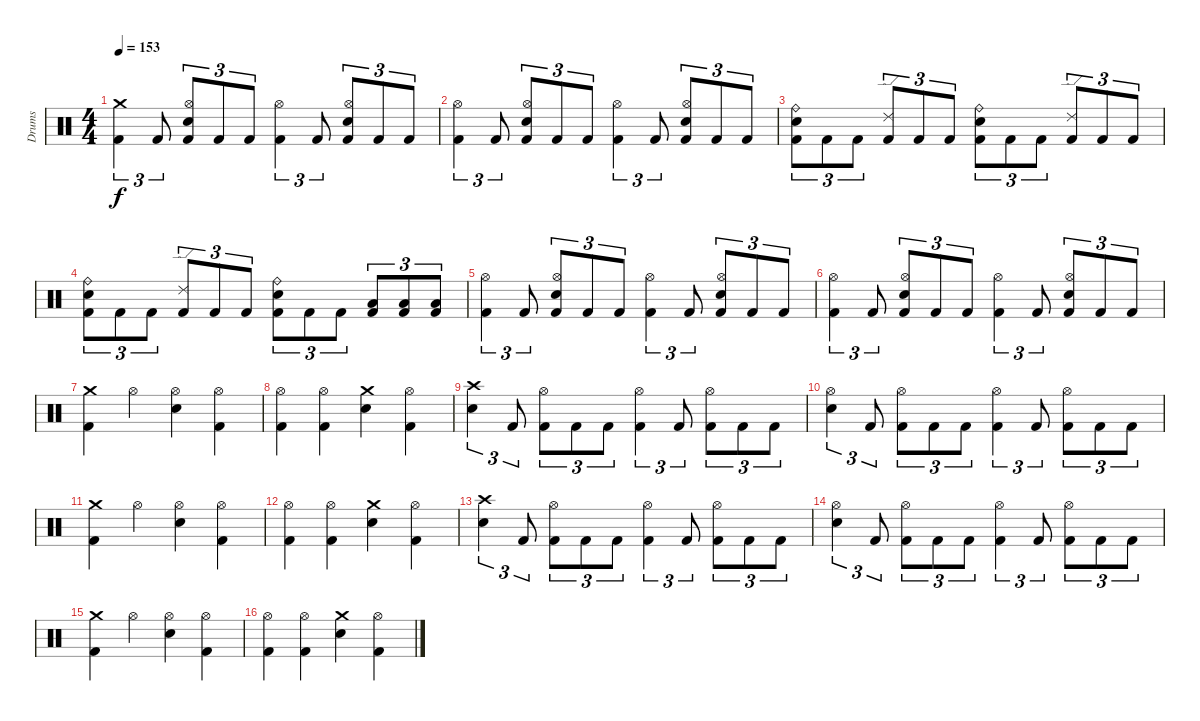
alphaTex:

\track ("Drums" "Drums") {instrument percussion}
\staff {score}
\articulation defaults
\ts (4 4)
\tempo 153
\clef neutral
\ks c
("Crash medium (hit)" "Kick (hit) 2").4{tu (3 2) dy f} "Kick (hit) 2".8{tu (3 2)} ("Hi-Hat (open)" "Electric Snare (hit)" "Kick (hit) 2").8{tu (3 2)} "Kick (hit) 2".8{tu (3 2)} "Kick (hit) 2".8{tu (3 2)} ("Hi-Hat (open)" "Kick (hit) 2").4{tu (3 2)} "Kick (hit) 2".8{tu (3 2)} ("Hi-Hat (open)" "Electric Snare (hit)" "Kick (hit) 2").8{tu (3 2)} "Kick (hit) 2".8{tu (3 2)} "Kick (hit) 2".8{tu (3 2)} |
("Hi-Hat (open)" "Kick (hit) 2").4{tu (3 2)} "Kick (hit) 2".8{tu (3 2)} ("Hi-Hat (open)" "Electric Snare (hit)" "Kick (hit) 2").8{tu (3 2)} "Kick (hit) 2".8{tu (3 2)} "Kick (hit) 2".8{tu (3 2)} ("Hi-Hat (open)" "Kick (hit) 2").4{tu (3 2)} "Kick (hit) 2".8{tu (3 2)} ("Hi-Hat (open)" "Electric Snare (hit)" "Kick (hit) 2").8{tu (3 2)} "Kick (hit) 2".8{tu (3 2)} "Kick (hit) 2".8{tu (3 2)} |
("Ride (bell)" "Electric Snare (hit)" "Kick (hit) 2").8{tu (3 2)} "Kick (hit) 2".8{tu (3 2)} "Kick (hit) 2".8{tu (3 2)} ("Ride (edge) 2" "Kick (hit) 2").8{tu (3 2)} "Kick (hit) 2".8{tu (3 2)} "Kick (hit) 2".8{tu (3 2)} ("Ride (bell)" "Electric Snare (hit)" "Kick (hit) 2").8{tu (3 2)} "Kick (hit) 2".8{tu (3 2)} "Kick (hit) 2".8{tu (3 2)} ("Ride (edge) 2" "Kick (hit) 2").8{tu (3 2)} "Kick (hit) 2".8{tu (3 2)} "Kick (hit) 2".8{tu (3 2)} |
("Ride (bell)" "Electric Snare (hit)" "Kick (hit) 2").8{tu (3 2)} "Kick (hit) 2".8{tu (3 2)} "Kick (hit) 2".8{tu (3 2)} ("Ride (edge) 2" "Kick (hit) 2").8{tu (3 2)} "Kick (hit) 2".8{tu (3 2)} "Kick (hit) 2".8{tu (3 2)} ("Ride (bell)" "Electric Snare (hit)" "Kick (hit) 2").8{tu (3 2)} "Kick (hit) 2".8{tu (3 2)} "Kick (hit) 2".8{tu (3 2)} ("Low Tom (hit)" "Kick (hit) 2").8{tu (3 2)} ("Low Tom (hit)" "Kick (hit) 2").8{tu (3 2)} ("Low Tom (hit)" "Kick (hit) 2").8{tu (3 2)} |
("Hi-Hat (open)" "Kick (hit) 2").4{tu (3 2)} "Kick (hit) 2".8{tu (3 2)} ("Hi-Hat (open)" "Electric Snare (hit)" "Kick (hit) 2").8{tu (3 2)} "Kick (hit) 2".8{tu (3 2)} "Kick (hit) 2".8{tu (3 2)} ("Hi-Hat (open)" "Kick (hit) 2").4{tu (3 2)} "Kick (hit) 2".8{tu (3 2)} ("Hi-Hat (open)" "Electric Snare (hit)" "Kick (hit) 2").8{tu (3 2)} "Kick (hit) 2".8{tu (3 2)} "Kick (hit) 2".8{tu (3 2)} |
("Hi-Hat (open)" "Kick (hit) 2").4{tu (3 2)} "Kick (hit) 2".8{tu (3 2)} ("Hi-Hat (open)" "Electric Snare (hit)" "Kick (hit) 2").8{tu (3 2)} "Kick (hit) 2".8{tu (3 2)} "Kick (hit) 2".8{tu (3 2)} ("Hi-Hat (open)" "Kick (hit) 2").4{tu (3 2)} "Kick (hit) 2".8{tu (3 2)} ("Hi-Hat (open)" "Electric Snare (hit)" "Kick (hit) 2").8{tu (3 2)} "Kick (hit) 2".8{tu (3 2)} "Kick (hit) 2".8{tu (3 2)} |
("Crash medium (hit)" "Kick (hit) 2").4 "Hi-Hat (open)".4 ("Hi-Hat (open)" "Electric Snare (hit)").4 ("Hi-Hat (open)" "Kick (hit) 2").4 |
("Hi-Hat (open)" "Kick (hit) 2").4 ("Hi-Hat (open)" "Kick (hit) 2").4 ("Crash medium (hit)" "Electric Snare (hit)").4 ("Hi-Hat (open)" "Kick (hit) 2").4 |
("Crash high (hit)" "Electric Snare (hit)").4{tu (3 2)} "Kick (hit) 2".8{tu (3 2)} ("Hi-Hat (open)" "Kick (hit) 2").8{tu (3 2)} "Kick (hit) 2".8{tu (3 2)} "Kick (hit) 2".8{tu (3 2)} ("Hi-Hat (open)" "Kick (hit) 2").4{tu (3 2)} "Kick (hit) 2".8{tu (3 2)} ("Hi-Hat (open)" "Kick (hit) 2").8{tu (3 2)} "Kick (hit) 2".8{tu (3 2)} "Kick (hit) 2".8{tu (3 2)} |
("Hi-Hat (open)" "Electric Snare (hit)").4{tu (3 2)} "Kick (hit) 2".8{tu (3 2)} ("Hi-Hat (open)" "Kick (hit) 2").8{tu (3 2)} "Kick (hit) 2".8{tu (3 2)} "Kick (hit) 2".8{tu (3 2)} ("Hi-Hat (open)" "Kick (hit) 2").4{tu (3 2)} "Kick (hit) 2".8{tu (3 2)} ("Hi-Hat (open)" "Kick (hit) 2").8{tu (3 2)} "Kick (hit) 2".8{tu (3 2)} "Kick (hit) 2".8{tu (3 2)} |
("Crash medium (hit)" "Kick (hit) 2").4 "Hi-Hat (open)".4 ("Hi-Hat (open)" "Electric Snare (hit)").4 ("Hi-Hat (open)" "Kick (hit) 2").4 |
("Hi-Hat (open)" "Kick (hit) 2").4 ("Hi-Hat (open)" "Kick (hit) 2").4 ("Crash medium (hit)" "Electric Snare (hit)").4 ("Hi-Hat (open)" "Kick (hit) 2").4 |
("Crash high (hit)" "Electric Snare (hit)").4{tu (3 2)} "Kick (hit) 2".8{tu (3 2)} ("Hi-Hat (open)" "Kick (hit) 2").8{tu (3 2)} "Kick (hit) 2".8{tu (3 2)} "Kick (hit) 2".8{tu (3 2)} ("Hi-Hat (open)" "Kick (hit) 2").4{tu (3 2)} "Kick (hit) 2".8{tu (3 2)} ("Hi-Hat (open)" "Kick (hit) 2").8{tu (3 2)} "Kick (hit) 2".8{tu (3 2)} "Kick (hit) 2".8{tu (3 2)} |
("Hi-Hat (open)" "Electric Snare (hit)").4{tu (3 2)} "Kick (hit) 2".8{tu (3 2)} ("Hi-Hat (open)" "Kick (hit) 2").8{tu (3 2)} "Kick (hit) 2".8{tu (3 2)} "Kick (hit) 2".8{tu (3 2)} ("Hi-Hat (open)" "Kick (hit) 2").4{tu (3 2)} "Kick (hit) 2".8{tu (3 2)} ("Hi-Hat (open)" "Kick (hit) 2").8{tu (3 2)} "Kick (hit) 2".8{tu (3 2)} "Kick (hit) 2".8{tu (3 2)} |
("Crash medium (hit)" "Kick (hit) 2").4 "Hi-Hat (open)".4 ("Hi-Hat (open)" "Electric Snare (hit)").4 ("Hi-Hat (open)" "Kick (hit) 2").4 |
("Hi-Hat (open)" "Kick (hit) 2").4 ("Hi-Hat (open)" "Kick (hit) 2").4 ("Crash medium (hit)" "Electric Snare (hit)").4 ("Hi-Hat (open)" "Kick (hit) 2").4
